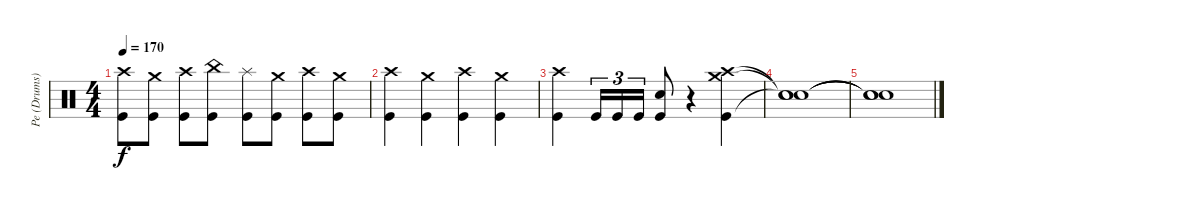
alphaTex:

\track ("Pe (Drums)" "Pe (Drums)") {instrument percussion}
\staff {score}
\articulation defaults
\ts (4 4)
\tempo 170
\clef neutral
\ks c
("Crash high (hit)" "Kick (hit)").8{dy f} ("Crash medium (hit)" "Kick (hit)").8 ("Crash high (hit)" "Kick (hit)").8 ("Kick (hit)" "China (hit)").8 ("Kick (hit)" "Splash (hit)").8 ("Crash medium (hit)" "Kick (hit)").8 ("Crash high (hit)" "Kick (hit)").8 ("Crash medium (hit)" "Kick (hit)").8 |
("Crash high (hit)" "Kick (hit)").4 ("Crash medium (hit)" "Kick (hit)").4 ("Crash high (hit)" "Kick (hit)").4 ("Crash medium (hit)" "Kick (hit)").4 |
("Crash high (hit)" "Kick (hit)").4 "Kick (hit)".16{tu (3 2)} "Kick (hit)".16{tu (3 2)} "Kick (hit)".16{tu (3 2)} ("Snare (hit) 2" "Kick (hit)").8 r.4 ("Crash high (hit)" "Crash medium (hit)" "Kick (hit)").4 |
("Snare (hit)"{t} "Snare (hit)"{t} "Snare (hit)"{t}).1 |
("Snare (hit)"{t} "Snare (hit)"{t} "Snare (hit)"{t}).1
